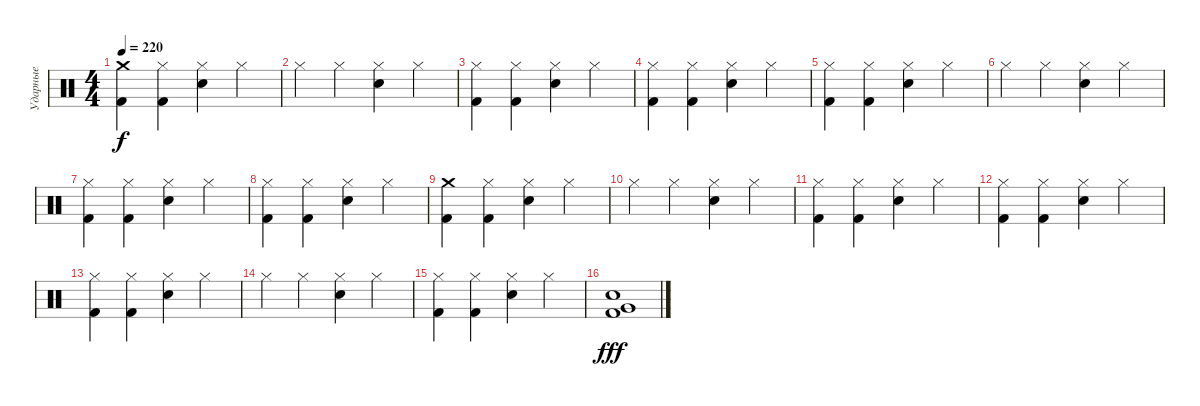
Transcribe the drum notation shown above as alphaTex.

\track ("Ударные" "Ударные") {instrument percussion}
\staff {score}
\articulation defaults
\ts (4 4)
\tempo 220
\clef neutral
\ks c
("Crash medium (hit)" "Kick (hit) 2").4{dy f} ("Hi-Hat (closed)" "Kick (hit) 2").4 ("Hi-Hat (closed)" "Electric Snare (hit)").4 "Hi-Hat (closed)".4 |
"Hi-Hat (closed)".4 "Hi-Hat (closed)".4 ("Hi-Hat (closed)" "Electric Snare (hit)").4 "Hi-Hat (closed)".4 |
("Hi-Hat (closed)" "Kick (hit) 2").4 ("Hi-Hat (closed)" "Kick (hit) 2").4 ("Hi-Hat (closed)" "Electric Snare (hit)").4 "Hi-Hat (closed)".4 |
("Hi-Hat (closed)" "Kick (hit) 2").4 ("Hi-Hat (closed)" "Kick (hit) 2").4 ("Hi-Hat (closed)" "Electric Snare (hit)").4 "Hi-Hat (closed)".4 |
("Hi-Hat (closed)" "Kick (hit) 2").4 ("Hi-Hat (closed)" "Kick (hit) 2").4 ("Hi-Hat (closed)" "Electric Snare (hit)").4 "Hi-Hat (closed)".4 |
"Hi-Hat (closed)".4 "Hi-Hat (closed)".4 ("Hi-Hat (closed)" "Electric Snare (hit)").4 "Hi-Hat (closed)".4 |
("Hi-Hat (closed)" "Kick (hit) 2").4 ("Hi-Hat (closed)" "Kick (hit) 2").4 ("Hi-Hat (closed)" "Electric Snare (hit)").4 "Hi-Hat (closed)".4 |
("Hi-Hat (closed)" "Kick (hit) 2").4 ("Hi-Hat (closed)" "Kick (hit) 2").4 ("Hi-Hat (closed)" "Electric Snare (hit)").4 "Hi-Hat (closed)".4 |
("Crash medium (hit)" "Kick (hit) 2").4 ("Hi-Hat (closed)" "Kick (hit) 2").4 ("Hi-Hat (closed)" "Electric Snare (hit)").4 "Hi-Hat (closed)".4 |
"Hi-Hat (closed)".4 "Hi-Hat (closed)".4 ("Hi-Hat (closed)" "Electric Snare (hit)").4 "Hi-Hat (closed)".4 |
("Hi-Hat (closed)" "Kick (hit) 2").4 ("Hi-Hat (closed)" "Kick (hit) 2").4 ("Hi-Hat (closed)" "Electric Snare (hit)").4 "Hi-Hat (closed)".4 |
("Hi-Hat (closed)" "Kick (hit) 2").4 ("Hi-Hat (closed)" "Kick (hit) 2").4 ("Hi-Hat (closed)" "Electric Snare (hit)").4 "Hi-Hat (closed)".4 |
("Hi-Hat (closed)" "Kick (hit) 2").4 ("Hi-Hat (closed)" "Kick (hit) 2").4 ("Hi-Hat (closed)" "Electric Snare (hit)").4 "Hi-Hat (closed)".4 |
"Hi-Hat (closed)".4 "Hi-Hat (closed)".4 ("Hi-Hat (closed)" "Electric Snare (hit)").4 "Hi-Hat (closed)".4 |
("Hi-Hat (closed)" "Kick (hit) 2").4 ("Hi-Hat (closed)" "Kick (hit) 2").4 ("Hi-Hat (closed)" "Electric Snare (hit)").4 "Hi-Hat (closed)".4 |
("Electric Snare (hit)" "Very Low Tom (hit)" "Kick (hit) 2").1{dy fff}
